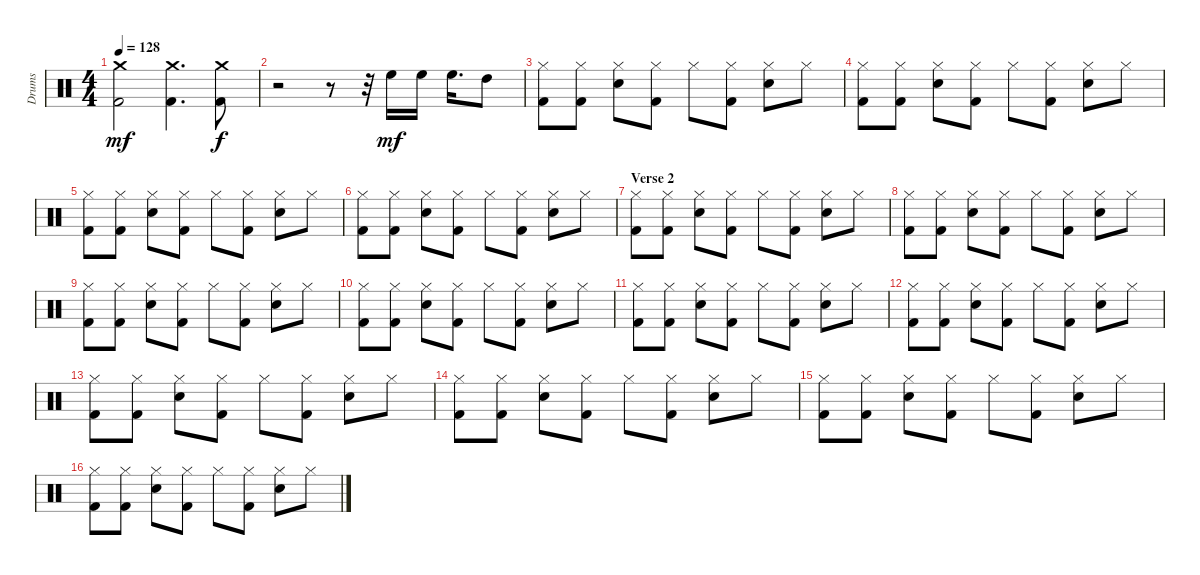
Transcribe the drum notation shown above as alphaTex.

\track ("Drums" "Drums") {instrument percussion}
\staff {score}
\articulation defaults
\ts (4 4)
\tempo 128
\clef neutral
\ks c
("Crash medium (hit)" "Kick (hit) 2").2{dy mf} ("Crash medium (hit)" "Kick (hit) 2").4{d} ("Crash medium (hit)" "Kick (hit) 2").8{dy f} |
r.2 r.8 r.32 "High Floor Tom (hit)".16{dy mf} "High Floor Tom (hit)".16 "High Floor Tom (hit)".16{d} "High Tom (hit)".8 |
("Hi-Hat (closed)" "Kick (hit) 2").8 ("Hi-Hat (closed)" "Kick (hit) 2").8 ("Hi-Hat (closed)" "Snare (hit) 2").8 ("Hi-Hat (closed)" "Kick (hit) 2").8 "Hi-Hat (closed)".8 ("Hi-Hat (closed)" "Kick (hit) 2").8 ("Hi-Hat (closed)" "Snare (hit) 2").8 "Hi-Hat (closed)".8 |
("Hi-Hat (closed)" "Kick (hit) 2").8 ("Hi-Hat (closed)" "Kick (hit) 2").8 ("Hi-Hat (closed)" "Snare (hit) 2").8 ("Hi-Hat (closed)" "Kick (hit) 2").8 "Hi-Hat (closed)".8 ("Hi-Hat (closed)" "Kick (hit) 2").8 ("Hi-Hat (closed)" "Snare (hit) 2").8 "Hi-Hat (closed)".8 |
("Hi-Hat (closed)" "Kick (hit) 2").8 ("Hi-Hat (closed)" "Kick (hit) 2").8 ("Hi-Hat (closed)" "Snare (hit) 2").8 ("Hi-Hat (closed)" "Kick (hit) 2").8 "Hi-Hat (closed)".8 ("Hi-Hat (closed)" "Kick (hit) 2").8 ("Hi-Hat (closed)" "Snare (hit) 2").8 "Hi-Hat (closed)".8 |
("Hi-Hat (closed)" "Kick (hit) 2").8 ("Hi-Hat (closed)" "Kick (hit) 2").8 ("Hi-Hat (closed)" "Snare (hit) 2").8 ("Hi-Hat (closed)" "Kick (hit) 2").8 "Hi-Hat (closed)".8 ("Hi-Hat (closed)" "Kick (hit) 2").8 ("Hi-Hat (closed)" "Snare (hit) 2").8 "Hi-Hat (closed)".8 |
\section ("" "Verse 2")
("Hi-Hat (closed)" "Kick (hit) 2").8 ("Hi-Hat (closed)" "Kick (hit) 2").8 ("Hi-Hat (closed)" "Snare (hit) 2").8 ("Hi-Hat (closed)" "Kick (hit) 2").8 "Hi-Hat (closed)".8 ("Hi-Hat (closed)" "Kick (hit) 2").8 ("Hi-Hat (closed)" "Snare (hit) 2").8 "Hi-Hat (closed)".8 |
("Hi-Hat (closed)" "Kick (hit) 2").8 ("Hi-Hat (closed)" "Kick (hit) 2").8 ("Hi-Hat (closed)" "Snare (hit) 2").8 ("Hi-Hat (closed)" "Kick (hit) 2").8 "Hi-Hat (closed)".8 ("Hi-Hat (closed)" "Kick (hit) 2").8 ("Hi-Hat (closed)" "Snare (hit) 2").8 "Hi-Hat (closed)".8 |
("Hi-Hat (closed)" "Kick (hit) 2").8 ("Hi-Hat (closed)" "Kick (hit) 2").8 ("Hi-Hat (closed)" "Snare (hit) 2").8 ("Hi-Hat (closed)" "Kick (hit) 2").8 "Hi-Hat (closed)".8 ("Hi-Hat (closed)" "Kick (hit) 2").8 ("Hi-Hat (closed)" "Snare (hit) 2").8 "Hi-Hat (closed)".8 |
("Hi-Hat (closed)" "Kick (hit) 2").8 ("Hi-Hat (closed)" "Kick (hit) 2").8 ("Hi-Hat (closed)" "Snare (hit) 2").8 ("Hi-Hat (closed)" "Kick (hit) 2").8 "Hi-Hat (closed)".8 ("Hi-Hat (closed)" "Kick (hit) 2").8 ("Hi-Hat (closed)" "Snare (hit) 2").8 "Hi-Hat (closed)".8 |
("Hi-Hat (closed)" "Kick (hit) 2").8 ("Hi-Hat (closed)" "Kick (hit) 2").8 ("Hi-Hat (closed)" "Snare (hit) 2").8 ("Hi-Hat (closed)" "Kick (hit) 2").8 "Hi-Hat (closed)".8 ("Hi-Hat (closed)" "Kick (hit) 2").8 ("Hi-Hat (closed)" "Snare (hit) 2").8 "Hi-Hat (closed)".8 |
("Hi-Hat (closed)" "Kick (hit) 2").8 ("Hi-Hat (closed)" "Kick (hit) 2").8 ("Hi-Hat (closed)" "Snare (hit) 2").8 ("Hi-Hat (closed)" "Kick (hit) 2").8 "Hi-Hat (closed)".8 ("Hi-Hat (closed)" "Kick (hit) 2").8 ("Hi-Hat (closed)" "Snare (hit) 2").8 "Hi-Hat (closed)".8 |
("Hi-Hat (closed)" "Kick (hit) 2").8 ("Hi-Hat (closed)" "Kick (hit) 2").8 ("Hi-Hat (closed)" "Snare (hit) 2").8 ("Hi-Hat (closed)" "Kick (hit) 2").8 "Hi-Hat (closed)".8 ("Hi-Hat (closed)" "Kick (hit) 2").8 ("Hi-Hat (closed)" "Snare (hit) 2").8 "Hi-Hat (closed)".8 |
("Hi-Hat (closed)" "Kick (hit) 2").8 ("Hi-Hat (closed)" "Kick (hit) 2").8 ("Hi-Hat (closed)" "Snare (hit) 2").8 ("Hi-Hat (closed)" "Kick (hit) 2").8 "Hi-Hat (closed)".8 ("Hi-Hat (closed)" "Kick (hit) 2").8 ("Hi-Hat (closed)" "Snare (hit) 2").8 "Hi-Hat (closed)".8 |
("Hi-Hat (closed)" "Kick (hit) 2").8 ("Hi-Hat (closed)" "Kick (hit) 2").8 ("Hi-Hat (closed)" "Snare (hit) 2").8 ("Hi-Hat (closed)" "Kick (hit) 2").8 "Hi-Hat (closed)".8 ("Hi-Hat (closed)" "Kick (hit) 2").8 ("Hi-Hat (closed)" "Snare (hit) 2").8 "Hi-Hat (closed)".8 |
("Hi-Hat (closed)" "Kick (hit) 2").8 ("Hi-Hat (closed)" "Kick (hit) 2").8 ("Hi-Hat (closed)" "Snare (hit) 2").8 ("Hi-Hat (closed)" "Kick (hit) 2").8 "Hi-Hat (closed)".8 ("Hi-Hat (closed)" "Kick (hit) 2").8 ("Hi-Hat (closed)" "Snare (hit) 2").8 "Hi-Hat (closed)".8
